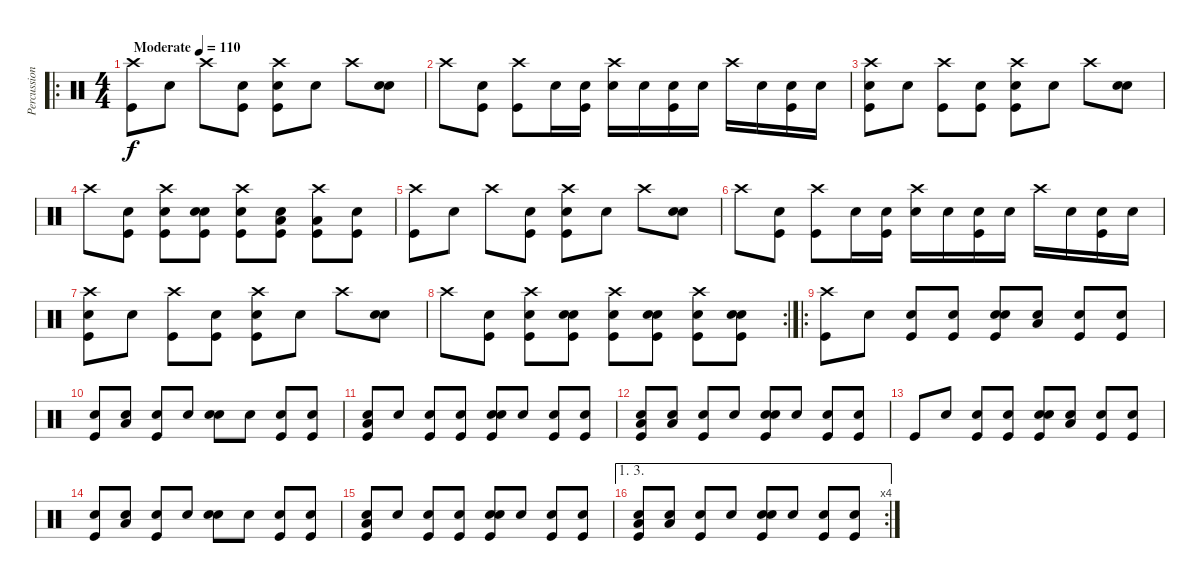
\track ("Percussion" "Percussion") {instrument percussion}
\staff {score}
\articulation defaults
\ro
\ts (4 4)
\tempo (110 "Moderate")
\clef neutral
\ks c
("Crash high (hit)" "Kick (hit)").8{dy f} "Snare (hit)".8 "Crash high (hit)".8 ("Snare (hit)" "Kick (hit)").8 ("Crash high (hit)" "Snare (hit) 2" "Kick (hit)").8 "Snare (hit)".8 "Crash high (hit)".8 ("Snare (hit)" "Snare (hit) 2").8 |
"Crash high (hit)".8 ("Snare (hit)" "Kick (hit)").8 ("Crash high (hit)" "Kick (hit)").8 "Snare (hit)".16 ("Snare (hit)" "Kick (hit)").16 ("Crash high (hit)" "Snare (hit) 2").16 "Snare (hit)".16 ("Snare (hit)" "Kick (hit)").16 "Snare (hit)".16 "Crash high (hit)".16 "Snare (hit)".16 ("Snare (hit)" "Kick (hit)").16 "Snare (hit)".16 |
("Crash high (hit)" "Snare (hit) 2" "Kick (hit)").8 "Snare (hit)".8 ("Crash high (hit)" "Kick (hit)").8 ("Snare (hit)" "Kick (hit)").8 ("Crash high (hit)" "Snare (hit) 2" "Kick (hit)").8 "Snare (hit)".8 "Crash high (hit)".8 ("Snare (hit)" "Snare (hit) 2").8 |
"Crash high (hit)".8 ("Snare (hit)" "Kick (hit)").8 ("Crash high (hit)" "Snare (hit) 2" "Kick (hit)").8 ("Snare (hit)" "Snare (hit) 2" "Kick (hit)").8 ("Crash high (hit)" "Snare (hit) 2" "Kick (hit)").8 ("Snare (hit)" "Low Tom (hit)" "Kick (hit)").8 ("Crash high (hit)" "Low Tom (hit)" "Kick (hit)").8 ("Snare (hit)" "Kick (hit)").8 |
("Crash high (hit)" "Kick (hit)").8 "Snare (hit)".8 "Crash high (hit)".8 ("Snare (hit)" "Kick (hit)").8 ("Crash high (hit)" "Snare (hit) 2" "Kick (hit)").8 "Snare (hit)".8 "Crash high (hit)".8 ("Snare (hit)" "Snare (hit) 2").8 |
"Crash high (hit)".8 ("Snare (hit)" "Kick (hit)").8 ("Crash high (hit)" "Kick (hit)").8 "Snare (hit)".16 ("Snare (hit)" "Kick (hit)").16 ("Crash high (hit)" "Snare (hit) 2").16 "Snare (hit)".16 ("Snare (hit)" "Kick (hit)").16 "Snare (hit)".16 "Crash high (hit)".16 "Snare (hit)".16 ("Snare (hit)" "Kick (hit)").16 "Snare (hit)".16 |
("Crash high (hit)" "Snare (hit) 2" "Kick (hit)").8 "Snare (hit)".8 ("Crash high (hit)" "Kick (hit)").8 ("Snare (hit)" "Kick (hit)").8 ("Crash high (hit)" "Snare (hit) 2" "Kick (hit)").8 "Snare (hit)".8 "Crash high (hit)".8 ("Snare (hit)" "Snare (hit) 2").8 |
\rc 2 "Crash high (hit)".8
("Snare (hit)" "Kick (hit)").8 ("Crash high (hit)" "Snare (hit) 2" "Kick (hit)").8 ("Snare (hit)" "Snare (hit) 2" "Kick (hit)").8 ("Crash high (hit)" "Snare (hit) 2" "Kick (hit)").8 ("Snare (hit)" "Snare (hit) 2" "Kick (hit)").8 ("Crash high (hit)" "Snare (hit) 2" "Kick (hit)").8 ("Snare (hit)" "Snare (hit) 2" "Kick (hit)").8 |
\ro
("Crash high (hit)" "Kick (hit)").8 "Snare (hit)".8 ("Snare (hit)" "Kick (hit)").8 ("Snare (hit)" "Kick (hit)").8 ("Snare (hit)" "Snare (hit) 2" "Kick (hit)").8 ("Snare (hit)" "Low Tom (hit)").8 ("Snare (hit)" "Kick (hit)").8 ("Snare (hit)" "Kick (hit)").8 |
("Snare (hit)" "Kick (hit)").8 ("Snare (hit)" "Low Tom (hit)").8 ("Snare (hit)" "Kick (hit)").8 "Snare (hit)".8 ("Snare (hit)" "Snare (hit) 2").8 "Snare (hit)".8 ("Snare (hit)" "Kick (hit)").8 ("Snare (hit)" "Kick (hit)").8 |
("Snare (hit)" "Low Tom (hit)" "Kick (hit)").8 "Snare (hit)".8 ("Snare (hit)" "Kick (hit)").8 ("Snare (hit)" "Kick (hit)").8 ("Snare (hit)" "Snare (hit) 2" "Kick (hit)").8 "Snare (hit)".8 ("Snare (hit)" "Kick (hit)").8 ("Snare (hit)" "Kick (hit)").8 |
("Snare (hit)" "Low Tom (hit)" "Kick (hit)").8 ("Snare (hit)" "Low Tom (hit)").8 ("Snare (hit)" "Kick (hit)").8 "Snare (hit)".8 ("Snare (hit)" "Snare (hit) 2" "Kick (hit)").8 "Snare (hit)".8 ("Snare (hit)" "Kick (hit)").8 ("Snare (hit)" "Kick (hit)").8 |
"Kick (hit)".8 "Snare (hit)".8 ("Snare (hit)" "Kick (hit)").8 ("Snare (hit)" "Kick (hit)").8 ("Snare (hit)" "Snare (hit) 2" "Kick (hit)").8 ("Snare (hit)" "Low Tom (hit)").8 ("Snare (hit)" "Kick (hit)").8 ("Snare (hit)" "Kick (hit)").8 |
("Snare (hit)" "Kick (hit)").8 ("Snare (hit)" "Low Tom (hit)").8 ("Snare (hit)" "Kick (hit)").8 "Snare (hit)".8 ("Snare (hit)" "Snare (hit) 2").8 "Snare (hit)".8 ("Snare (hit)" "Kick (hit)").8 ("Snare (hit)" "Kick (hit)").8 |
("Snare (hit)" "Low Tom (hit)" "Kick (hit)").8 "Snare (hit)".8 ("Snare (hit)" "Kick (hit)").8 ("Snare (hit)" "Kick (hit)").8 ("Snare (hit)" "Snare (hit) 2" "Kick (hit)").8 "Snare (hit)".8 ("Snare (hit)" "Kick (hit)").8 ("Snare (hit)" "Kick (hit)").8 |
\ae (1 3)
\rc 4
("Snare (hit)" "Low Tom (hit)" "Kick (hit)").8 ("Snare (hit)" "Low Tom (hit)").8 ("Snare (hit)" "Kick (hit)").8 "Snare (hit)".8 ("Snare (hit)" "Snare (hit) 2" "Kick (hit)").8 "Snare (hit)".8 ("Snare (hit)" "Kick (hit)").8 ("Snare (hit)" "Kick (hit)").8
